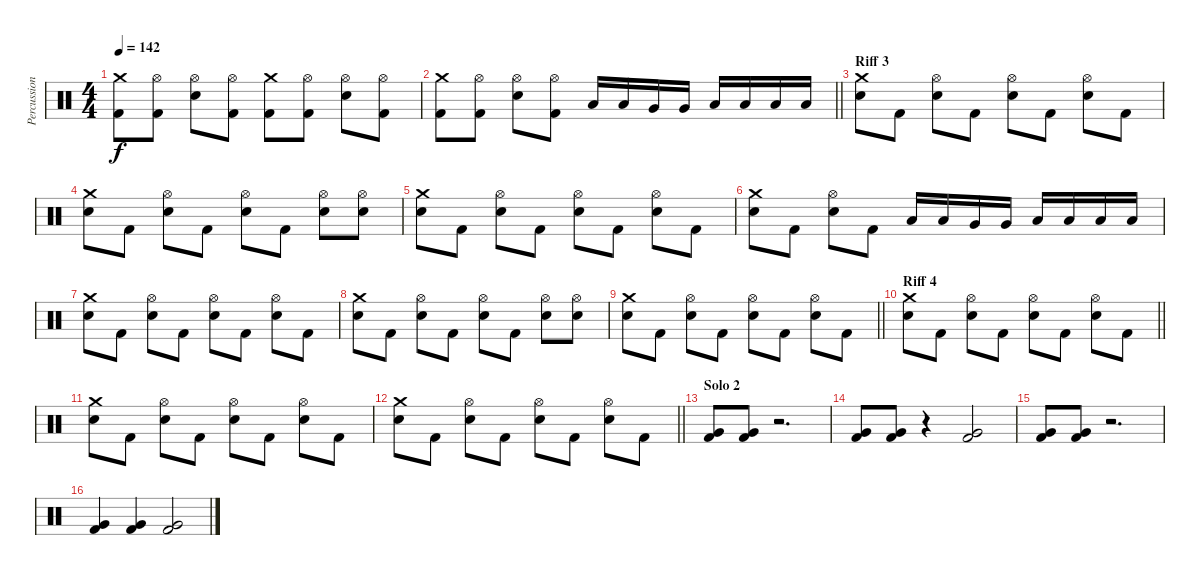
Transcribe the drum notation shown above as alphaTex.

\track ("Percussions" "Percussion") {instrument percussion}
\staff {score}
\articulation defaults
\ts (4 4)
\tempo 142
\clef neutral
\ks c
("Crash medium (hit)" "Kick (hit) 2").8{dy f} ("Hi-Hat (open)" "Kick (hit) 2").8 ("Hi-Hat (open)" "Electric Snare (hit)").8 ("Hi-Hat (open)" "Kick (hit) 2").8 ("Crash medium (hit)" "Kick (hit) 2").8 ("Hi-Hat (open)" "Kick (hit) 2").8 ("Hi-Hat (open)" "Electric Snare (hit)").8 ("Hi-Hat (open)" "Kick (hit) 2").8 |
\barLineRight lightlight
("Crash medium (hit)" "Kick (hit) 2").8 ("Hi-Hat (open)" "Kick (hit) 2").8 ("Hi-Hat (open)" "Electric Snare (hit)").8 ("Hi-Hat (open)" "Kick (hit) 2").8 "Low Tom (hit)".16 "Low Tom (hit)".16 "Very Low Tom (hit)".16 "Very Low Tom (hit)".16 "Low Floor Tom (hit)".16 "Low Floor Tom (hit)".16 "Low Floor Tom (hit)".16 "Low Floor Tom (hit)".16 |
\section ("" "Riff 3")
("Crash medium (hit)" "Electric Snare (hit)").8 "Kick (hit) 2".8 ("Hi-Hat (open)" "Electric Snare (hit)").8 "Kick (hit) 2".8 ("Hi-Hat (open)" "Electric Snare (hit)").8 "Kick (hit) 2".8 ("Hi-Hat (open)" "Electric Snare (hit)").8 "Kick (hit) 2".8 |
("Crash medium (hit)" "Electric Snare (hit)").8 "Kick (hit) 2".8 ("Hi-Hat (open)" "Electric Snare (hit)").8 "Kick (hit) 2".8 ("Hi-Hat (open)" "Electric Snare (hit)").8 "Kick (hit) 2".8 ("Hi-Hat (open)" "Electric Snare (hit)").8 ("Hi-Hat (open)" "Electric Snare (hit)").8 |
("Crash medium (hit)" "Electric Snare (hit)").8 "Kick (hit) 2".8 ("Hi-Hat (open)" "Electric Snare (hit)").8 "Kick (hit) 2".8 ("Hi-Hat (open)" "Electric Snare (hit)").8 "Kick (hit) 2".8 ("Hi-Hat (open)" "Electric Snare (hit)").8 "Kick (hit) 2".8 |
("Crash medium (hit)" "Electric Snare (hit)").8 "Kick (hit) 2".8 ("Hi-Hat (open)" "Electric Snare (hit)").8 "Kick (hit) 2".8 "Low Tom (hit)".16 "Low Tom (hit)".16 "Very Low Tom (hit)".16 "Very Low Tom (hit)".16 "Low Floor Tom (hit)".16 "Low Floor Tom (hit)".16 "Low Floor Tom (hit)".16 "Low Floor Tom (hit)".16 |
("Crash medium (hit)" "Electric Snare (hit)").8 "Kick (hit) 2".8 ("Hi-Hat (open)" "Electric Snare (hit)").8 "Kick (hit) 2".8 ("Hi-Hat (open)" "Electric Snare (hit)").8 "Kick (hit) 2".8 ("Hi-Hat (open)" "Electric Snare (hit)").8 "Kick (hit) 2".8 |
("Crash medium (hit)" "Electric Snare (hit)").8 "Kick (hit) 2".8 ("Hi-Hat (open)" "Electric Snare (hit)").8 "Kick (hit) 2".8 ("Hi-Hat (open)" "Electric Snare (hit)").8 "Kick (hit) 2".8 ("Hi-Hat (open)" "Electric Snare (hit)").8 ("Hi-Hat (open)" "Electric Snare (hit)").8 |
\barLineRight lightlight
("Crash medium (hit)" "Electric Snare (hit)").8 "Kick (hit) 2".8 ("Hi-Hat (open)" "Electric Snare (hit)").8 "Kick (hit) 2".8 ("Hi-Hat (open)" "Electric Snare (hit)").8 "Kick (hit) 2".8 ("Hi-Hat (open)" "Electric Snare (hit)").8 "Kick (hit) 2".8 |
\section ("" "Riff 4")
\barLineRight lightlight
("Crash medium (hit)" "Electric Snare (hit)").8 "Kick (hit) 2".8 ("Hi-Hat (open)" "Electric Snare (hit)").8 "Kick (hit) 2".8 ("Hi-Hat (open)" "Electric Snare (hit)").8 "Kick (hit) 2".8 ("Hi-Hat (open)" "Electric Snare (hit)").8 "Kick (hit) 2".8 |
("Crash medium (hit)" "Electric Snare (hit)").8 "Kick (hit) 2".8 ("Hi-Hat (open)" "Electric Snare (hit)").8 "Kick (hit) 2".8 ("Hi-Hat (open)" "Electric Snare (hit)").8 "Kick (hit) 2".8 ("Hi-Hat (open)" "Electric Snare (hit)").8 "Kick (hit) 2".8 |
\barLineRight lightlight
("Crash medium (hit)" "Electric Snare (hit)").8 "Kick (hit) 2".8 ("Hi-Hat (open)" "Electric Snare (hit)").8 "Kick (hit) 2".8 ("Hi-Hat (open)" "Electric Snare (hit)").8 "Kick (hit) 2".8 ("Hi-Hat (open)" "Electric Snare (hit)").8 "Kick (hit) 2".8 |
\section ("" "Solo 2")
("Very Low Tom (hit)" "Kick (hit) 2").8 ("Very Low Tom (hit)" "Kick (hit) 2").8 r.2{d} |
("Very Low Tom (hit)" "Kick (hit) 2").8 ("Very Low Tom (hit)" "Kick (hit) 2").8 r.4 ("Very Low Tom (hit)" "Kick (hit) 2").2 |
("Very Low Tom (hit)" "Kick (hit) 2").8 ("Very Low Tom (hit)" "Kick (hit) 2").8 r.2{d} |
("Very Low Tom (hit)" "Kick (hit) 2").4 ("Very Low Tom (hit)" "Kick (hit) 2").4 ("Very Low Tom (hit)" "Kick (hit) 2").2
